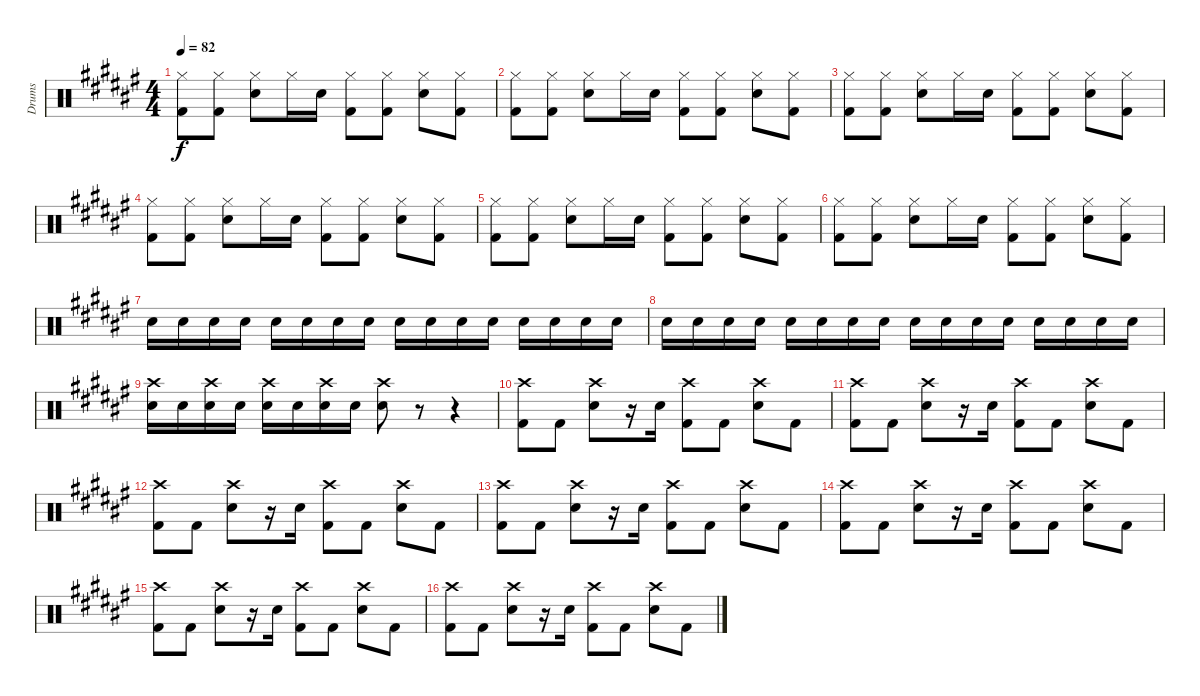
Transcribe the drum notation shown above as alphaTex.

\track ("Drums" "Drums") {instrument percussion}
\staff {score}
\articulation defaults
\ts (4 4)
\tempo 82
\clef neutral
\ks f#
("Hi-Hat (closed)" "Kick (hit) 2").8{dy f} ("Hi-Hat (closed)" "Kick (hit) 2").8 ("Hi-Hat (closed)" "Electric Snare (hit)").8 "Hi-Hat (closed)".16 "Electric Snare (hit)".16 ("Hi-Hat (closed)" "Kick (hit) 2").8 ("Hi-Hat (closed)" "Kick (hit) 2").8 ("Hi-Hat (closed)" "Electric Snare (hit)").8 ("Hi-Hat (closed)" "Kick (hit) 2").8 |
("Hi-Hat (closed)" "Kick (hit) 2").8 ("Hi-Hat (closed)" "Kick (hit) 2").8 ("Hi-Hat (closed)" "Electric Snare (hit)").8 "Hi-Hat (closed)".16 "Electric Snare (hit)".16 ("Hi-Hat (closed)" "Kick (hit) 2").8 ("Hi-Hat (closed)" "Kick (hit) 2").8 ("Hi-Hat (closed)" "Electric Snare (hit)").8 ("Hi-Hat (closed)" "Kick (hit) 2").8 |
("Hi-Hat (closed)" "Kick (hit) 2").8 ("Hi-Hat (closed)" "Kick (hit) 2").8 ("Hi-Hat (closed)" "Electric Snare (hit)").8 "Hi-Hat (closed)".16 "Electric Snare (hit)".16 ("Hi-Hat (closed)" "Kick (hit) 2").8 ("Hi-Hat (closed)" "Kick (hit) 2").8 ("Hi-Hat (closed)" "Electric Snare (hit)").8 ("Hi-Hat (closed)" "Kick (hit) 2").8 |
("Hi-Hat (closed)" "Kick (hit) 2").8 ("Hi-Hat (closed)" "Kick (hit) 2").8 ("Hi-Hat (closed)" "Electric Snare (hit)").8 "Hi-Hat (closed)".16 "Electric Snare (hit)".16 ("Hi-Hat (closed)" "Kick (hit) 2").8 ("Hi-Hat (closed)" "Kick (hit) 2").8 ("Hi-Hat (closed)" "Electric Snare (hit)").8 ("Hi-Hat (closed)" "Kick (hit) 2").8 |
("Hi-Hat (closed)" "Kick (hit) 2").8 ("Hi-Hat (closed)" "Kick (hit) 2").8 ("Hi-Hat (closed)" "Electric Snare (hit)").8 "Hi-Hat (closed)".16 "Electric Snare (hit)".16 ("Hi-Hat (closed)" "Kick (hit) 2").8 ("Hi-Hat (closed)" "Kick (hit) 2").8 ("Hi-Hat (closed)" "Electric Snare (hit)").8 ("Hi-Hat (closed)" "Kick (hit) 2").8 |
("Hi-Hat (closed)" "Kick (hit) 2").8 ("Hi-Hat (closed)" "Kick (hit) 2").8 ("Hi-Hat (closed)" "Electric Snare (hit)").8 "Hi-Hat (closed)".16 "Electric Snare (hit)".16 ("Hi-Hat (closed)" "Kick (hit) 2").8 ("Hi-Hat (closed)" "Kick (hit) 2").8 ("Hi-Hat (closed)" "Electric Snare (hit)").8 ("Hi-Hat (closed)" "Kick (hit) 2").8 |
"Electric Snare (hit)".16 "Electric Snare (hit)".16 "Electric Snare (hit)".16 "Electric Snare (hit)".16 "Electric Snare (hit)".16 "Electric Snare (hit)".16 "Electric Snare (hit)".16 "Electric Snare (hit)".16 "Electric Snare (hit)".16 "Electric Snare (hit)".16 "Electric Snare (hit)".16 "Electric Snare (hit)".16 "Electric Snare (hit)".16 "Electric Snare (hit)".16 "Electric Snare (hit)".16 "Electric Snare (hit)".16 |
"Electric Snare (hit)".16 "Electric Snare (hit)".16 "Electric Snare (hit)".16 "Electric Snare (hit)".16 "Electric Snare (hit)".16 "Electric Snare (hit)".16 "Electric Snare (hit)".16 "Electric Snare (hit)".16 "Electric Snare (hit)".16 "Electric Snare (hit)".16 "Electric Snare (hit)".16 "Electric Snare (hit)".16 "Electric Snare (hit)".16 "Electric Snare (hit)".16 "Electric Snare (hit)".16 "Electric Snare (hit)".16 |
("Crash high (hit)" "Electric Snare (hit)").16 "Electric Snare (hit)".16 ("Crash high (hit)" "Electric Snare (hit)").16 "Electric Snare (hit)".16 ("Crash high (hit)" "Electric Snare (hit)").16 "Electric Snare (hit)".16 ("Crash high (hit)" "Electric Snare (hit)").16 "Electric Snare (hit)".16 ("Crash high (hit)" "Electric Snare (hit)").8 r.8{volume 0} r.4 |
("Crash high (hit)" "Kick (hit) 2").8{volume 16} "Kick (hit) 2".8 ("Crash high (hit)" "Electric Snare (hit)").8 r.16 "Electric Snare (hit)".16 ("Crash high (hit)" "Kick (hit) 2").8 "Kick (hit) 2".8 ("Crash high (hit)" "Electric Snare (hit)").8 "Kick (hit) 2".8 |
("Crash high (hit)" "Kick (hit) 2").8 "Kick (hit) 2".8 ("Crash high (hit)" "Electric Snare (hit)").8 r.16 "Electric Snare (hit)".16 ("Crash high (hit)" "Kick (hit) 2").8 "Kick (hit) 2".8 ("Crash high (hit)" "Electric Snare (hit)").8 "Kick (hit) 2".8 |
("Crash high (hit)" "Kick (hit) 2").8 "Kick (hit) 2".8 ("Crash high (hit)" "Electric Snare (hit)").8 r.16 "Electric Snare (hit)".16 ("Crash high (hit)" "Kick (hit) 2").8 "Kick (hit) 2".8 ("Crash high (hit)" "Electric Snare (hit)").8 "Kick (hit) 2".8 |
("Crash high (hit)" "Kick (hit) 2").8 "Kick (hit) 2".8 ("Crash high (hit)" "Electric Snare (hit)").8 r.16 "Electric Snare (hit)".16 ("Crash high (hit)" "Kick (hit) 2").8 "Kick (hit) 2".8 ("Crash high (hit)" "Electric Snare (hit)").8 "Kick (hit) 2".8 |
("Crash high (hit)" "Kick (hit) 2").8 "Kick (hit) 2".8 ("Crash high (hit)" "Electric Snare (hit)").8 r.16 "Electric Snare (hit)".16 ("Crash high (hit)" "Kick (hit) 2").8 "Kick (hit) 2".8 ("Crash high (hit)" "Electric Snare (hit)").8 "Kick (hit) 2".8 |
("Crash high (hit)" "Kick (hit) 2").8 "Kick (hit) 2".8 ("Crash high (hit)" "Electric Snare (hit)").8 r.16 "Electric Snare (hit)".16 ("Crash high (hit)" "Kick (hit) 2").8 "Kick (hit) 2".8 ("Crash high (hit)" "Electric Snare (hit)").8 "Kick (hit) 2".8 |
("Crash high (hit)" "Kick (hit) 2").8 "Kick (hit) 2".8 ("Crash high (hit)" "Electric Snare (hit)").8 r.16 "Electric Snare (hit)".16 ("Crash high (hit)" "Kick (hit) 2").8 "Kick (hit) 2".8 ("Crash high (hit)" "Electric Snare (hit)").8 "Kick (hit) 2".8
